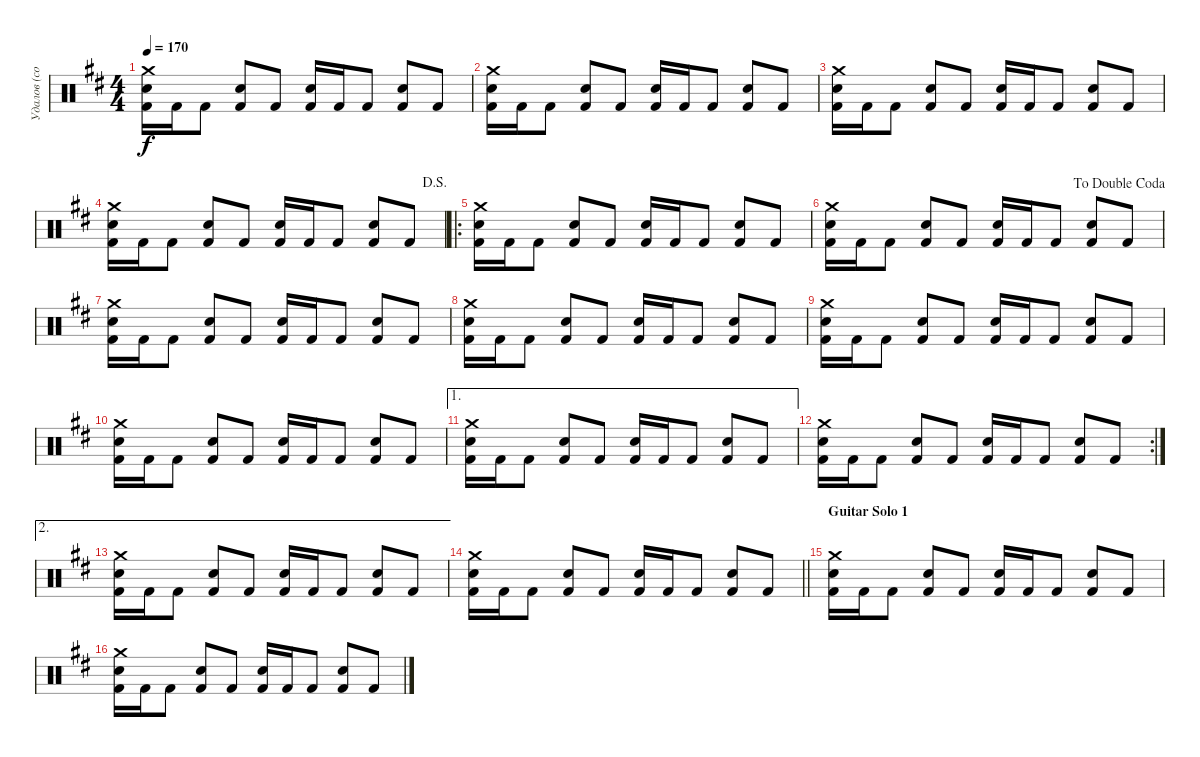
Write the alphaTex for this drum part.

\track ("Удалов (сорри за ударные)" "Удалов (со") {instrument percussion}
\staff {score}
\articulation defaults
\ts (4 4)
\tempo 170
\clef neutral
\ks d
("Crash medium (hit)" "Snare (hit) 2" "Kick (hit) 2").16{dy f} "Kick (hit) 2".16 "Kick (hit) 2".8 ("Snare (hit) 2" "Kick (hit) 2").8 "Kick (hit) 2".8 ("Snare (hit) 2" "Kick (hit) 2").16 "Kick (hit) 2".16 "Kick (hit) 2".8 ("Snare (hit) 2" "Kick (hit) 2").8 "Kick (hit) 2".8 |
("Crash medium (hit)" "Snare (hit) 2" "Kick (hit) 2").16 "Kick (hit) 2".16 "Kick (hit) 2".8 ("Snare (hit) 2" "Kick (hit) 2").8 "Kick (hit) 2".8 ("Snare (hit) 2" "Kick (hit) 2").16 "Kick (hit) 2".16 "Kick (hit) 2".8 ("Snare (hit) 2" "Kick (hit) 2").8 "Kick (hit) 2".8 |
("Crash medium (hit)" "Snare (hit) 2" "Kick (hit) 2").16 "Kick (hit) 2".16 "Kick (hit) 2".8 ("Snare (hit) 2" "Kick (hit) 2").8 "Kick (hit) 2".8 ("Snare (hit) 2" "Kick (hit) 2").16 "Kick (hit) 2".16 "Kick (hit) 2".8 ("Snare (hit) 2" "Kick (hit) 2").8 "Kick (hit) 2".8 |
\jump dalsegno
("Crash medium (hit)" "Snare (hit) 2" "Kick (hit) 2").16 "Kick (hit) 2".16 "Kick (hit) 2".8 ("Snare (hit) 2" "Kick (hit) 2").8 "Kick (hit) 2".8 ("Snare (hit) 2" "Kick (hit) 2").16 "Kick (hit) 2".16 "Kick (hit) 2".8 ("Snare (hit) 2" "Kick (hit) 2").8 "Kick (hit) 2".8 |
\ro
("Crash medium (hit)" "Snare (hit) 2" "Kick (hit) 2").16 "Kick (hit) 2".16 "Kick (hit) 2".8 ("Snare (hit) 2" "Kick (hit) 2").8 "Kick (hit) 2".8 ("Snare (hit) 2" "Kick (hit) 2").16 "Kick (hit) 2".16 "Kick (hit) 2".8 ("Snare (hit) 2" "Kick (hit) 2").8 "Kick (hit) 2".8 |
\jump dadoublecoda
("Crash medium (hit)" "Snare (hit) 2" "Kick (hit) 2").16 "Kick (hit) 2".16 "Kick (hit) 2".8 ("Snare (hit) 2" "Kick (hit) 2").8 "Kick (hit) 2".8 ("Snare (hit) 2" "Kick (hit) 2").16 "Kick (hit) 2".16 "Kick (hit) 2".8 ("Snare (hit) 2" "Kick (hit) 2").8 "Kick (hit) 2".8 |
("Crash medium (hit)" "Snare (hit) 2" "Kick (hit) 2").16 "Kick (hit) 2".16 "Kick (hit) 2".8 ("Snare (hit) 2" "Kick (hit) 2").8 "Kick (hit) 2".8 ("Snare (hit) 2" "Kick (hit) 2").16 "Kick (hit) 2".16 "Kick (hit) 2".8 ("Snare (hit) 2" "Kick (hit) 2").8 "Kick (hit) 2".8 |
("Crash medium (hit)" "Snare (hit) 2" "Kick (hit) 2").16 "Kick (hit) 2".16 "Kick (hit) 2".8 ("Snare (hit) 2" "Kick (hit) 2").8 "Kick (hit) 2".8 ("Snare (hit) 2" "Kick (hit) 2").16 "Kick (hit) 2".16 "Kick (hit) 2".8 ("Snare (hit) 2" "Kick (hit) 2").8 "Kick (hit) 2".8 |
("Crash medium (hit)" "Snare (hit) 2" "Kick (hit) 2").16 "Kick (hit) 2".16 "Kick (hit) 2".8 ("Snare (hit) 2" "Kick (hit) 2").8 "Kick (hit) 2".8 ("Snare (hit) 2" "Kick (hit) 2").16 "Kick (hit) 2".16 "Kick (hit) 2".8 ("Snare (hit) 2" "Kick (hit) 2").8 "Kick (hit) 2".8 |
("Crash medium (hit)" "Snare (hit) 2" "Kick (hit) 2").16 "Kick (hit) 2".16 "Kick (hit) 2".8 ("Snare (hit) 2" "Kick (hit) 2").8 "Kick (hit) 2".8 ("Snare (hit) 2" "Kick (hit) 2").16 "Kick (hit) 2".16 "Kick (hit) 2".8 ("Snare (hit) 2" "Kick (hit) 2").8 "Kick (hit) 2".8 |
\ae 1
("Crash medium (hit)" "Snare (hit) 2" "Kick (hit) 2").16 "Kick (hit) 2".16 "Kick (hit) 2".8 ("Snare (hit) 2" "Kick (hit) 2").8 "Kick (hit) 2".8 ("Snare (hit) 2" "Kick (hit) 2").16 "Kick (hit) 2".16 "Kick (hit) 2".8 ("Snare (hit) 2" "Kick (hit) 2").8 "Kick (hit) 2".8 |
\rc 2
("Crash medium (hit)" "Snare (hit) 2" "Kick (hit) 2").16 "Kick (hit) 2".16 "Kick (hit) 2".8 ("Snare (hit) 2" "Kick (hit) 2").8 "Kick (hit) 2".8 ("Snare (hit) 2" "Kick (hit) 2").16 "Kick (hit) 2".16 "Kick (hit) 2".8 ("Snare (hit) 2" "Kick (hit) 2").8 "Kick (hit) 2".8 |
\ae 2
("Crash medium (hit)" "Snare (hit) 2" "Kick (hit) 2").16 "Kick (hit) 2".16 "Kick (hit) 2".8 ("Snare (hit) 2" "Kick (hit) 2").8 "Kick (hit) 2".8 ("Snare (hit) 2" "Kick (hit) 2").16 "Kick (hit) 2".16 "Kick (hit) 2".8 ("Snare (hit) 2" "Kick (hit) 2").8 "Kick (hit) 2".8 |
\barLineRight lightlight
("Crash medium (hit)" "Snare (hit) 2" "Kick (hit) 2").16 "Kick (hit) 2".16 "Kick (hit) 2".8 ("Snare (hit) 2" "Kick (hit) 2").8 "Kick (hit) 2".8 ("Snare (hit) 2" "Kick (hit) 2").16 "Kick (hit) 2".16 "Kick (hit) 2".8 ("Snare (hit) 2" "Kick (hit) 2").8 "Kick (hit) 2".8 |
\section ("" "Guitar Solo 1")
("Crash medium (hit)" "Snare (hit) 2" "Kick (hit) 2").16 "Kick (hit) 2".16 "Kick (hit) 2".8 ("Snare (hit) 2" "Kick (hit) 2").8 "Kick (hit) 2".8 ("Snare (hit) 2" "Kick (hit) 2").16 "Kick (hit) 2".16 "Kick (hit) 2".8 ("Snare (hit) 2" "Kick (hit) 2").8 "Kick (hit) 2".8 |
("Crash medium (hit)" "Snare (hit) 2" "Kick (hit) 2").16 "Kick (hit) 2".16 "Kick (hit) 2".8 ("Snare (hit) 2" "Kick (hit) 2").8 "Kick (hit) 2".8 ("Snare (hit) 2" "Kick (hit) 2").16 "Kick (hit) 2".16 "Kick (hit) 2".8 ("Snare (hit) 2" "Kick (hit) 2").8 "Kick (hit) 2".8
